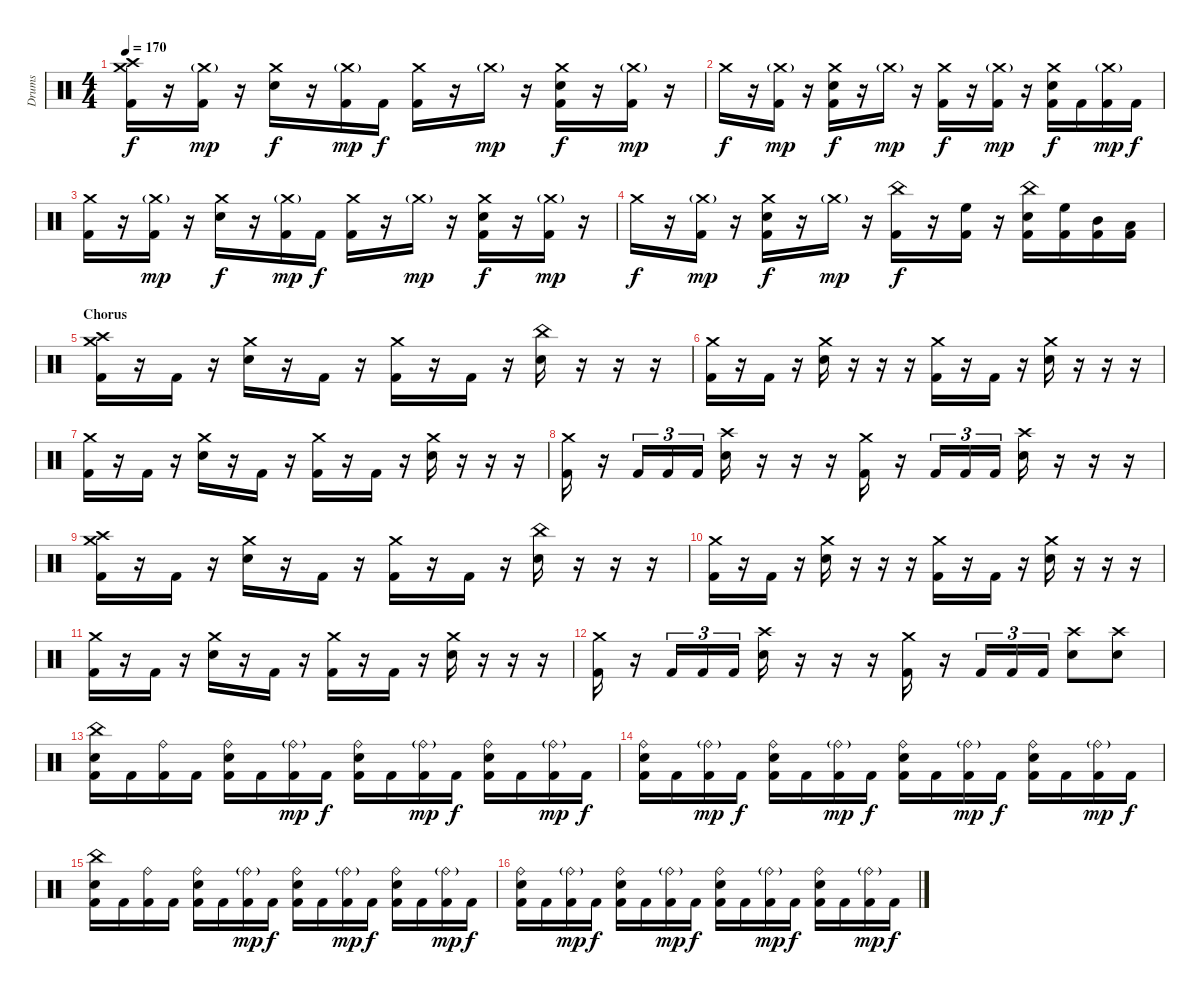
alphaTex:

\track ("Drums" "Drums") {instrument percussion}
\staff {score}
\articulation defaults
\ts (4 4)
\tempo 170
\clef neutral
\ks c
("Crash medium (hit)" "Crash high (hit)" "Kick (hit) 2").16{dy f} r.16 ("Crash medium (hit)"{g} "Kick (hit) 2").16{dy mp} r.16 ("Crash medium (hit)" "Electric Snare (hit)").16{dy f} r.16 ("Crash medium (hit)"{g} "Kick (hit) 2").16{dy mp} "Kick (hit) 2".16{dy f} ("Crash medium (hit)" "Kick (hit) 2").16 r.16 "Crash medium (hit)"{g}.16{dy mp} r.16 ("Crash medium (hit)" "Electric Snare (hit)" "Kick (hit) 2").16{dy f} r.16 ("Crash medium (hit)"{g} "Kick (hit) 2").16{dy mp} r.16 |
"Crash medium (hit)".16{dy f} r.16 ("Crash medium (hit)"{g} "Kick (hit) 2").16{dy mp} r.16 ("Crash medium (hit)" "Electric Snare (hit)" "Kick (hit) 2").16{dy f} r.16 "Crash medium (hit)"{g}.16{dy mp} r.16 ("Crash medium (hit)" "Kick (hit) 2").16{dy f} r.16 ("Crash medium (hit)"{g} "Kick (hit) 2").16{dy mp} r.16 ("Crash medium (hit)" "Electric Snare (hit)" "Kick (hit) 2").16{dy f} "Kick (hit) 2".16 ("Crash medium (hit)"{g} "Kick (hit) 2").16{dy mp} "Kick (hit) 2".16{dy f} |
("Crash medium (hit)" "Kick (hit) 2").16 r.16 ("Crash medium (hit)"{g} "Kick (hit) 2").16{dy mp} r.16 ("Crash medium (hit)" "Electric Snare (hit)").16{dy f} r.16 ("Crash medium (hit)"{g} "Kick (hit) 2").16{dy mp} "Kick (hit) 2".16{dy f} ("Crash medium (hit)" "Kick (hit) 2").16 r.16 "Crash medium (hit)"{g}.16{dy mp} r.16 ("Crash medium (hit)" "Electric Snare (hit)" "Kick (hit) 2").16{dy f} r.16 ("Crash medium (hit)"{g} "Kick (hit) 2").16{dy mp} r.16 |
"Crash medium (hit)".16{dy f} r.16 ("Crash medium (hit)"{g} "Kick (hit) 2").16{dy mp} r.16 ("Crash medium (hit)" "Electric Snare (hit)" "Kick (hit) 2").16{dy f} r.16 "Crash medium (hit)"{g}.16{dy mp} r.16 ("China (hit)" "Kick (hit) 2").16{dy f} r.16 ("High Floor Tom (hit)" "Kick (hit) 2").16 r.16 ("China (hit)" "Electric Snare (hit)" "Kick (hit) 2").16 ("High Floor Tom (hit)" "Kick (hit) 2").16 ("Mid Tom (hit)" "Kick (hit) 2").16 ("Low Tom (hit)" "Kick (hit) 2").16 |
\section ("" "Chorus")
("Crash medium (hit)" "Crash high (hit)" "Kick (hit) 2").16 r.16 "Kick (hit) 2".16 r.16 ("Crash medium (hit)" "Electric Snare (hit)").16 r.16 "Kick (hit) 2".16 r.16 ("Crash medium (hit)" "Kick (hit) 2").16 r.16 "Kick (hit) 2".16 r.16 ("China (hit)" "Electric Snare (hit)").16 r.16 r.16 r.16 |
("Crash medium (hit)" "Kick (hit) 2").16 r.16 "Kick (hit) 2".16 r.16 ("Crash medium (hit)" "Electric Snare (hit)").16 r.16 r.16 r.16 ("Crash medium (hit)" "Kick (hit) 2").16 r.16 "Kick (hit) 2".16 r.16 ("Crash medium (hit)" "Electric Snare (hit)").16 r.16 r.16 r.16 |
("Crash medium (hit)" "Kick (hit) 2").16 r.16 "Kick (hit) 2".16 r.16 ("Crash medium (hit)" "Electric Snare (hit)").16 r.16 "Kick (hit) 2".16 r.16 ("Crash medium (hit)" "Kick (hit) 2").16 r.16 "Kick (hit) 2".16 r.16 ("Crash medium (hit)" "Electric Snare (hit)").16 r.16 r.16 r.16 |
("Crash medium (hit)" "Kick (hit) 2").16 r.16 "Kick (hit) 2".16{tu (3 2)} "Kick (hit) 2".16{tu (3 2)} "Kick (hit) 2".16{tu (3 2)} ("Crash high (hit)" "Electric Snare (hit)").16 r.16 r.16 r.16 ("Crash medium (hit)" "Kick (hit) 2").16 r.16 "Kick (hit) 2".16{tu (3 2)} "Kick (hit) 2".16{tu (3 2)} "Kick (hit) 2".16{tu (3 2)} ("Crash high (hit)" "Electric Snare (hit)").16 r.16 r.16 r.16 |
("Crash medium (hit)" "Crash high (hit)" "Kick (hit) 2").16 r.16 "Kick (hit) 2".16 r.16 ("Crash medium (hit)" "Electric Snare (hit)").16 r.16 "Kick (hit) 2".16 r.16 ("Crash medium (hit)" "Kick (hit) 2").16 r.16 "Kick (hit) 2".16 r.16 ("China (hit)" "Electric Snare (hit)").16 r.16 r.16 r.16 |
("Crash medium (hit)" "Kick (hit) 2").16 r.16 "Kick (hit) 2".16 r.16 ("Crash medium (hit)" "Electric Snare (hit)").16 r.16 r.16 r.16 ("Crash medium (hit)" "Kick (hit) 2").16 r.16 "Kick (hit) 2".16 r.16 ("Crash medium (hit)" "Electric Snare (hit)").16 r.16 r.16 r.16 |
("Crash medium (hit)" "Kick (hit) 2").16 r.16 "Kick (hit) 2".16 r.16 ("Crash medium (hit)" "Electric Snare (hit)").16 r.16 "Kick (hit) 2".16 r.16 ("Crash medium (hit)" "Kick (hit) 2").16 r.16 "Kick (hit) 2".16 r.16 ("Crash medium (hit)" "Electric Snare (hit)").16 r.16 r.16 r.16 |
("Crash medium (hit)" "Kick (hit) 2").16 r.16 "Kick (hit) 2".16{tu (3 2)} "Kick (hit) 2".16{tu (3 2)} "Kick (hit) 2".16{tu (3 2)} ("Crash high (hit)" "Electric Snare (hit)").16 r.16 r.16 r.16 ("Crash medium (hit)" "Kick (hit) 2").16 r.16 "Kick (hit) 2".16{tu (3 2)} "Kick (hit) 2".16{tu (3 2)} "Kick (hit) 2".16{tu (3 2)} ("Crash high (hit)" "Electric Snare (hit)").8 ("Crash high (hit)" "Electric Snare (hit)").8 |
("China (hit)" "Electric Snare (hit)" "Kick (hit) 2").16 "Kick (hit) 2".16 ("Ride (bell)" "Kick (hit) 2").16 "Kick (hit) 2".16 ("Ride (bell)" "Electric Snare (hit)" "Kick (hit) 2").16 "Kick (hit) 2".16 ("Ride (bell)"{g} "Kick (hit) 2").16{dy mp} "Kick (hit) 2".16{dy f} ("Ride (bell)" "Electric Snare (hit)" "Kick (hit) 2").16 "Kick (hit) 2".16 ("Ride (bell)"{g} "Kick (hit) 2").16{dy mp} "Kick (hit) 2".16{dy f} ("Ride (bell)" "Electric Snare (hit)" "Kick (hit) 2").16 "Kick (hit) 2".16 ("Ride (bell)"{g} "Kick (hit) 2").16{dy mp} "Kick (hit) 2".16{dy f} |
("Ride (bell)" "Electric Snare (hit)" "Kick (hit) 2").16 "Kick (hit) 2".16 ("Ride (bell)"{g} "Kick (hit) 2").16{dy mp} "Kick (hit) 2".16{dy f} ("Ride (bell)" "Electric Snare (hit)" "Kick (hit) 2").16 "Kick (hit) 2".16 ("Ride (bell)"{g} "Kick (hit) 2").16{dy mp} "Kick (hit) 2".16{dy f} ("Ride (bell)" "Electric Snare (hit)" "Kick (hit) 2").16 "Kick (hit) 2".16 ("Ride (bell)"{g} "Kick (hit) 2").16{dy mp} "Kick (hit) 2".16{dy f} ("Ride (bell)" "Electric Snare (hit)" "Kick (hit) 2").16 "Kick (hit) 2".16 ("Ride (bell)"{g} "Kick (hit) 2").16{dy mp} "Kick (hit) 2".16{dy f} |
("China (hit)" "Electric Snare (hit)" "Kick (hit) 2").16 "Kick (hit) 2".16 ("Ride (bell)" "Kick (hit) 2").16 "Kick (hit) 2".16 ("Ride (bell)" "Electric Snare (hit)" "Kick (hit) 2").16 "Kick (hit) 2".16 ("Ride (bell)"{g} "Kick (hit) 2").16{dy mp} "Kick (hit) 2".16{dy f} ("Ride (bell)" "Electric Snare (hit)" "Kick (hit) 2").16 "Kick (hit) 2".16 ("Ride (bell)"{g} "Kick (hit) 2").16{dy mp} "Kick (hit) 2".16{dy f} ("Ride (bell)" "Electric Snare (hit)" "Kick (hit) 2").16 "Kick (hit) 2".16 ("Ride (bell)"{g} "Kick (hit) 2").16{dy mp} "Kick (hit) 2".16{dy f} |
("Ride (bell)" "Electric Snare (hit)" "Kick (hit) 2").16 "Kick (hit) 2".16 ("Ride (bell)"{g} "Kick (hit) 2").16{dy mp} "Kick (hit) 2".16{dy f} ("Ride (bell)" "Electric Snare (hit)" "Kick (hit) 2").16 "Kick (hit) 2".16 ("Ride (bell)"{g} "Kick (hit) 2").16{dy mp} "Kick (hit) 2".16{dy f} ("Ride (bell)" "Electric Snare (hit)" "Kick (hit) 2").16 "Kick (hit) 2".16 ("Ride (bell)"{g} "Kick (hit) 2").16{dy mp} "Kick (hit) 2".16{dy f} ("Ride (bell)" "Electric Snare (hit)" "Kick (hit) 2").16 "Kick (hit) 2".16 ("Ride (bell)"{g} "Kick (hit) 2").16{dy mp} "Kick (hit) 2".16{dy f}
